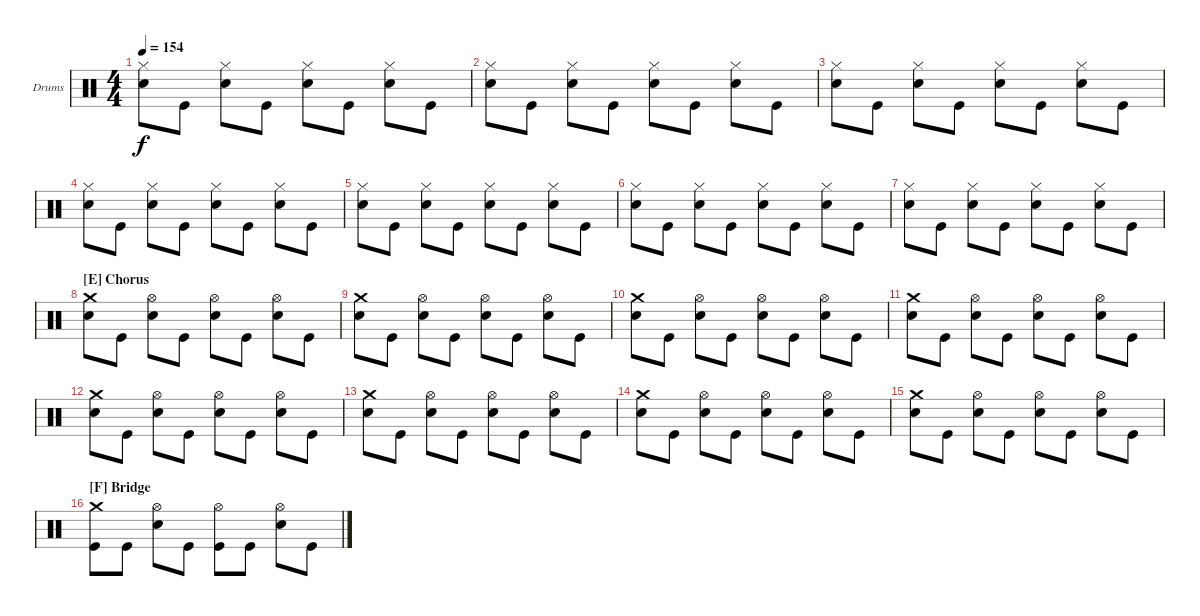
\defaultSystemsLayout 4
\bracketExtendMode groupsimilarinstruments
\firstSystemTrackNameOrientation horizontal
\otherSystemsTrackNameOrientation horizontal
\track ("Drumkit" "Drums") {instrument percussion}
\staff {score}
\articulation defaults
\ts (4 4)
\tempo 154
\clef neutral
\scale
1.02648
\ks c
("Hi-Hat (closed)" "Snare (hit) 2").8{dy f} "Kick (hit)".8 ("Hi-Hat (closed)" "Snare (hit) 2").8 "Kick (hit)".8 ("Hi-Hat (closed)" "Snare (hit) 2").8 "Kick (hit)".8 ("Hi-Hat (closed)" "Snare (hit) 2").8 "Kick (hit)".8 |
\scale
0.973518 ("Hi-Hat (closed)" "Snare (hit) 2").8 "Kick (hit)".8 ("Hi-Hat (closed)" "Snare (hit) 2").8 "Kick (hit)".8 ("Hi-Hat (closed)" "Snare (hit) 2").8 "Kick (hit)".8 ("Hi-Hat (closed)" "Snare (hit) 2").8 "Kick (hit)".8 |
\scale
1.02648 ("Hi-Hat (closed)" "Snare (hit) 2").8 "Kick (hit)".8 ("Hi-Hat (closed)" "Snare (hit) 2").8 "Kick (hit)".8 ("Hi-Hat (closed)" "Snare (hit) 2").8 "Kick (hit)".8 ("Hi-Hat (closed)" "Snare (hit) 2").8 "Kick (hit)".8 |
\scale
0.973518 ("Hi-Hat (closed)" "Snare (hit) 2").8 "Kick (hit)".8 ("Hi-Hat (closed)" "Snare (hit) 2").8 "Kick (hit)".8 ("Hi-Hat (closed)" "Snare (hit) 2").8 "Kick (hit)".8 ("Hi-Hat (closed)" "Snare (hit) 2").8 "Kick (hit)".8 |
\scale
1.02648 ("Hi-Hat (closed)" "Snare (hit) 2").8 "Kick (hit)".8 ("Hi-Hat (closed)" "Snare (hit) 2").8 "Kick (hit)".8 ("Hi-Hat (closed)" "Snare (hit) 2").8 "Kick (hit)".8 ("Hi-Hat (closed)" "Snare (hit) 2").8 "Kick (hit)".8 |
\scale
0.973518 ("Hi-Hat (closed)" "Snare (hit) 2").8 "Kick (hit)".8 ("Hi-Hat (closed)" "Snare (hit) 2").8 "Kick (hit)".8 ("Hi-Hat (closed)" "Snare (hit) 2").8 "Kick (hit)".8 ("Hi-Hat (closed)" "Snare (hit) 2").8 "Kick (hit)".8 |
\scale
1.02648 ("Hi-Hat (closed)" "Snare (hit) 2").8 "Kick (hit)".8 ("Hi-Hat (closed)" "Snare (hit) 2").8 "Kick (hit)".8 ("Hi-Hat (closed)" "Snare (hit) 2").8 "Kick (hit)".8 ("Hi-Hat (closed)" "Snare (hit) 2").8 "Kick (hit)".8 |
\section ("E" "Chorus")
\scale
0.973518 ("Crash medium (hit)" "Snare (hit) 2").8 "Kick (hit)".8 ("Hi-Hat (open)" "Snare (hit) 2").8 "Kick (hit)".8 ("Hi-Hat (open)" "Snare (hit) 2").8 "Kick (hit)".8 ("Hi-Hat (open)" "Snare (hit) 2").8 "Kick (hit)".8 |
\scale
1.02648 ("Crash medium (hit)" "Snare (hit) 2").8 "Kick (hit)".8 ("Hi-Hat (open)" "Snare (hit) 2").8 "Kick (hit)".8 ("Hi-Hat (open)" "Snare (hit) 2").8 "Kick (hit)".8 ("Hi-Hat (open)" "Snare (hit) 2").8 "Kick (hit)".8 |
\scale
0.973518 ("Crash medium (hit)" "Snare (hit) 2").8 "Kick (hit)".8 ("Hi-Hat (open)" "Snare (hit) 2").8 "Kick (hit)".8 ("Hi-Hat (open)" "Snare (hit) 2").8 "Kick (hit)".8 ("Hi-Hat (open)" "Snare (hit) 2").8 "Kick (hit)".8 |
\scale
1.02648 ("Crash medium (hit)" "Snare (hit) 2").8 "Kick (hit)".8 ("Hi-Hat (open)" "Snare (hit) 2").8 "Kick (hit)".8 ("Hi-Hat (open)" "Snare (hit) 2").8 "Kick (hit)".8 ("Hi-Hat (open)" "Snare (hit) 2").8 "Kick (hit)".8 |
\scale
0.973518 ("Crash medium (hit)" "Snare (hit) 2").8 "Kick (hit)".8 ("Hi-Hat (open)" "Snare (hit) 2").8 "Kick (hit)".8 ("Hi-Hat (open)" "Snare (hit) 2").8 "Kick (hit)".8 ("Hi-Hat (open)" "Snare (hit) 2").8 "Kick (hit)".8 |
\scale
1.02648 ("Crash medium (hit)" "Snare (hit) 2").8 "Kick (hit)".8 ("Hi-Hat (open)" "Snare (hit) 2").8 "Kick (hit)".8 ("Hi-Hat (open)" "Snare (hit) 2").8 "Kick (hit)".8 ("Hi-Hat (open)" "Snare (hit) 2").8 "Kick (hit)".8 |
\scale
0.973518 ("Crash medium (hit)" "Snare (hit) 2").8 "Kick (hit)".8 ("Hi-Hat (open)" "Snare (hit) 2").8 "Kick (hit)".8 ("Hi-Hat (open)" "Snare (hit) 2").8 "Kick (hit)".8 ("Hi-Hat (open)" "Snare (hit) 2").8 "Kick (hit)".8 |
\scale
1.02648 ("Crash medium (hit)" "Snare (hit) 2").8 "Kick (hit)".8 ("Hi-Hat (open)" "Snare (hit) 2").8 "Kick (hit)".8 ("Hi-Hat (open)" "Snare (hit) 2").8 "Kick (hit)".8 ("Hi-Hat (open)" "Snare (hit) 2").8 "Kick (hit)".8 |
\section ("F" "Bridge")
\scale
0.973518 ("Crash medium (hit)" "Kick (hit)").8 "Kick (hit)".8 ("Hi-Hat (open)" "Snare (hit) 2").8 "Kick (hit)".8 ("Hi-Hat (open)" "Kick (hit)").8 "Kick (hit)".8 ("Hi-Hat (open)" "Snare (hit) 2").8 "Kick (hit)".8
